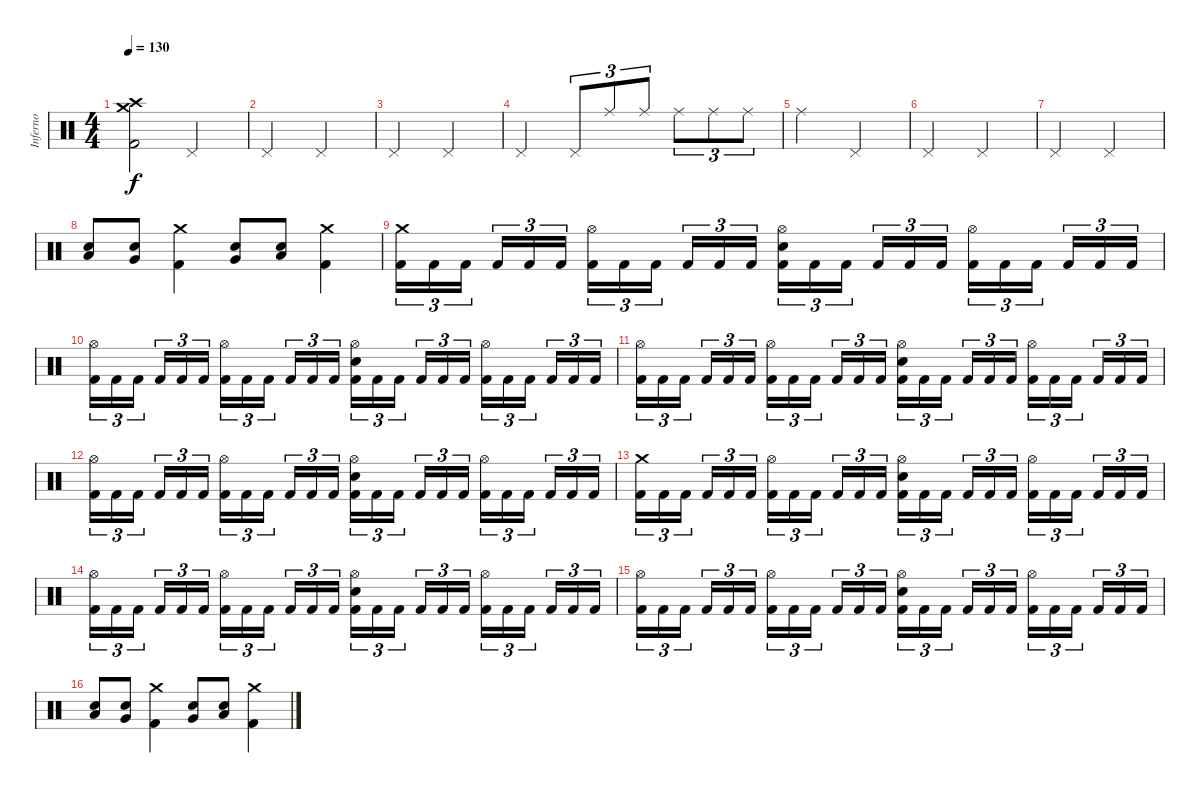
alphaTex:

\track ("Inferno" "Inferno") {instrument percussion}
\staff {score}
\articulation defaults
\ts (4 4)
\tempo 130
\clef neutral
\ks c
("Crash high (hit)" "Crash medium (hit)" "Kick (hit) 2").2{dy f} "Pedal Hi-Hat (hit)".2 |
"Pedal Hi-Hat (hit)".2 "Pedal Hi-Hat (hit)".2 |
"Pedal Hi-Hat (hit)".2 "Pedal Hi-Hat (hit)".2 |
"Pedal Hi-Hat (hit)".2 "Pedal Hi-Hat (hit)".8{tu (3 2)} "Ride (middle)".8{tu (3 2)} "Ride (middle)".8{tu (3 2)} "Ride (middle)".8{tu (3 2)} "Ride (middle)".8{tu (3 2)} "Ride (middle)".8{tu (3 2)} |
"Ride (middle)".2 "Pedal Hi-Hat (hit)".2 |
"Pedal Hi-Hat (hit)".2 "Pedal Hi-Hat (hit)".2 |
"Pedal Hi-Hat (hit)".2 "Pedal Hi-Hat (hit)".2 |
("Low Tom (hit)" "Snare (hit) 2").8 ("Very Low Tom (hit)" "Snare (hit) 2").8 ("Crash medium (hit)" "Kick (hit) 2").4 ("Very Low Tom (hit)" "Snare (hit) 2").8 ("Low Floor Tom (hit)" "Snare (hit) 2").8 ("Crash medium (hit)" "Kick (hit) 2").4 |
("Crash medium (hit)" "Kick (hit) 2").16{tu (3 2)} "Kick (hit) 2".16{tu (3 2)} "Kick (hit) 2".16{tu (3 2) beam splitsecondary} "Kick (hit) 2".16{tu (3 2)} "Kick (hit) 2".16{tu (3 2)} "Kick (hit) 2".16{tu (3 2)} ("Hi-Hat (open)" "Kick (hit) 2").16{tu (3 2)} "Kick (hit) 2".16{tu (3 2)} "Kick (hit) 2".16{tu (3 2) beam splitsecondary} "Kick (hit) 2".16{tu (3 2)} "Kick (hit) 2".16{tu (3 2)} "Kick (hit) 2".16{tu (3 2)} ("Hi-Hat (open)" "Snare (hit) 2" "Kick (hit) 2").16{tu (3 2)} "Kick (hit) 2".16{tu (3 2)} "Kick (hit) 2".16{tu (3 2) beam splitsecondary} "Kick (hit) 2".16{tu (3 2)} "Kick (hit) 2".16{tu (3 2)} "Kick (hit) 2".16{tu (3 2)} ("Hi-Hat (open)" "Kick (hit) 2").16{tu (3 2)} "Kick (hit) 2".16{tu (3 2)} "Kick (hit) 2".16{tu (3 2) beam splitsecondary} "Kick (hit) 2".16{tu (3 2)} "Kick (hit) 2".16{tu (3 2)} "Kick (hit) 2".16{tu (3 2)} |
("Hi-Hat (open)" "Kick (hit) 2").16{tu (3 2)} "Kick (hit) 2".16{tu (3 2)} "Kick (hit) 2".16{tu (3 2) beam splitsecondary} "Kick (hit) 2".16{tu (3 2)} "Kick (hit) 2".16{tu (3 2)} "Kick (hit) 2".16{tu (3 2)} ("Hi-Hat (open)" "Kick (hit) 2").16{tu (3 2)} "Kick (hit) 2".16{tu (3 2)} "Kick (hit) 2".16{tu (3 2) beam splitsecondary} "Kick (hit) 2".16{tu (3 2)} "Kick (hit) 2".16{tu (3 2)} "Kick (hit) 2".16{tu (3 2)} ("Hi-Hat (open)" "Snare (hit) 2" "Kick (hit) 2").16{tu (3 2)} "Kick (hit) 2".16{tu (3 2)} "Kick (hit) 2".16{tu (3 2) beam splitsecondary} "Kick (hit) 2".16{tu (3 2)} "Kick (hit) 2".16{tu (3 2)} "Kick (hit) 2".16{tu (3 2)} ("Hi-Hat (open)" "Kick (hit) 2").16{tu (3 2)} "Kick (hit) 2".16{tu (3 2)} "Kick (hit) 2".16{tu (3 2) beam splitsecondary} "Kick (hit) 2".16{tu (3 2)} "Kick (hit) 2".16{tu (3 2)} "Kick (hit) 2".16{tu (3 2)} |
("Hi-Hat (open)" "Kick (hit) 2").16{tu (3 2)} "Kick (hit) 2".16{tu (3 2)} "Kick (hit) 2".16{tu (3 2) beam splitsecondary} "Kick (hit) 2".16{tu (3 2)} "Kick (hit) 2".16{tu (3 2)} "Kick (hit) 2".16{tu (3 2)} ("Hi-Hat (open)" "Kick (hit) 2").16{tu (3 2)} "Kick (hit) 2".16{tu (3 2)} "Kick (hit) 2".16{tu (3 2) beam splitsecondary} "Kick (hit) 2".16{tu (3 2)} "Kick (hit) 2".16{tu (3 2)} "Kick (hit) 2".16{tu (3 2)} ("Hi-Hat (open)" "Snare (hit) 2" "Kick (hit) 2").16{tu (3 2)} "Kick (hit) 2".16{tu (3 2)} "Kick (hit) 2".16{tu (3 2) beam splitsecondary} "Kick (hit) 2".16{tu (3 2)} "Kick (hit) 2".16{tu (3 2)} "Kick (hit) 2".16{tu (3 2)} ("Hi-Hat (open)" "Kick (hit) 2").16{tu (3 2)} "Kick (hit) 2".16{tu (3 2)} "Kick (hit) 2".16{tu (3 2) beam splitsecondary} "Kick (hit) 2".16{tu (3 2)} "Kick (hit) 2".16{tu (3 2)} "Kick (hit) 2".16{tu (3 2)} |
("Hi-Hat (open)" "Kick (hit) 2").16{tu (3 2)} "Kick (hit) 2".16{tu (3 2)} "Kick (hit) 2".16{tu (3 2) beam splitsecondary} "Kick (hit) 2".16{tu (3 2)} "Kick (hit) 2".16{tu (3 2)} "Kick (hit) 2".16{tu (3 2)} ("Hi-Hat (open)" "Kick (hit) 2").16{tu (3 2)} "Kick (hit) 2".16{tu (3 2)} "Kick (hit) 2".16{tu (3 2) beam splitsecondary} "Kick (hit) 2".16{tu (3 2)} "Kick (hit) 2".16{tu (3 2)} "Kick (hit) 2".16{tu (3 2)} ("Hi-Hat (open)" "Snare (hit) 2" "Kick (hit) 2").16{tu (3 2)} "Kick (hit) 2".16{tu (3 2)} "Kick (hit) 2".16{tu (3 2) beam splitsecondary} "Kick (hit) 2".16{tu (3 2)} "Kick (hit) 2".16{tu (3 2)} "Kick (hit) 2".16{tu (3 2)} ("Hi-Hat (open)" "Kick (hit) 2").16{tu (3 2)} "Kick (hit) 2".16{tu (3 2)} "Kick (hit) 2".16{tu (3 2) beam splitsecondary} "Kick (hit) 2".16{tu (3 2)} "Kick (hit) 2".16{tu (3 2)} "Kick (hit) 2".16{tu (3 2)} |
("Crash medium (hit)" "Kick (hit) 2").16{tu (3 2)} "Kick (hit) 2".16{tu (3 2)} "Kick (hit) 2".16{tu (3 2) beam splitsecondary} "Kick (hit) 2".16{tu (3 2)} "Kick (hit) 2".16{tu (3 2)} "Kick (hit) 2".16{tu (3 2)} ("Hi-Hat (open)" "Kick (hit) 2").16{tu (3 2)} "Kick (hit) 2".16{tu (3 2)} "Kick (hit) 2".16{tu (3 2) beam splitsecondary} "Kick (hit) 2".16{tu (3 2)} "Kick (hit) 2".16{tu (3 2)} "Kick (hit) 2".16{tu (3 2)} ("Hi-Hat (open)" "Snare (hit) 2" "Kick (hit) 2").16{tu (3 2)} "Kick (hit) 2".16{tu (3 2)} "Kick (hit) 2".16{tu (3 2) beam splitsecondary} "Kick (hit) 2".16{tu (3 2)} "Kick (hit) 2".16{tu (3 2)} "Kick (hit) 2".16{tu (3 2)} ("Hi-Hat (open)" "Kick (hit) 2").16{tu (3 2)} "Kick (hit) 2".16{tu (3 2)} "Kick (hit) 2".16{tu (3 2) beam splitsecondary} "Kick (hit) 2".16{tu (3 2)} "Kick (hit) 2".16{tu (3 2)} "Kick (hit) 2".16{tu (3 2)} |
("Hi-Hat (open)" "Kick (hit) 2").16{tu (3 2)} "Kick (hit) 2".16{tu (3 2)} "Kick (hit) 2".16{tu (3 2) beam splitsecondary} "Kick (hit) 2".16{tu (3 2)} "Kick (hit) 2".16{tu (3 2)} "Kick (hit) 2".16{tu (3 2)} ("Hi-Hat (open)" "Kick (hit) 2").16{tu (3 2)} "Kick (hit) 2".16{tu (3 2)} "Kick (hit) 2".16{tu (3 2) beam splitsecondary} "Kick (hit) 2".16{tu (3 2)} "Kick (hit) 2".16{tu (3 2)} "Kick (hit) 2".16{tu (3 2)} ("Hi-Hat (open)" "Snare (hit) 2" "Kick (hit) 2").16{tu (3 2)} "Kick (hit) 2".16{tu (3 2)} "Kick (hit) 2".16{tu (3 2) beam splitsecondary} "Kick (hit) 2".16{tu (3 2)} "Kick (hit) 2".16{tu (3 2)} "Kick (hit) 2".16{tu (3 2)} ("Hi-Hat (open)" "Kick (hit) 2").16{tu (3 2)} "Kick (hit) 2".16{tu (3 2)} "Kick (hit) 2".16{tu (3 2) beam splitsecondary} "Kick (hit) 2".16{tu (3 2)} "Kick (hit) 2".16{tu (3 2)} "Kick (hit) 2".16{tu (3 2)} |
("Hi-Hat (open)" "Kick (hit) 2").16{tu (3 2)} "Kick (hit) 2".16{tu (3 2)} "Kick (hit) 2".16{tu (3 2) beam splitsecondary} "Kick (hit) 2".16{tu (3 2)} "Kick (hit) 2".16{tu (3 2)} "Kick (hit) 2".16{tu (3 2)} ("Hi-Hat (open)" "Kick (hit) 2").16{tu (3 2)} "Kick (hit) 2".16{tu (3 2)} "Kick (hit) 2".16{tu (3 2) beam splitsecondary} "Kick (hit) 2".16{tu (3 2)} "Kick (hit) 2".16{tu (3 2)} "Kick (hit) 2".16{tu (3 2)} ("Hi-Hat (open)" "Snare (hit) 2" "Kick (hit) 2").16{tu (3 2)} "Kick (hit) 2".16{tu (3 2)} "Kick (hit) 2".16{tu (3 2) beam splitsecondary} "Kick (hit) 2".16{tu (3 2)} "Kick (hit) 2".16{tu (3 2)} "Kick (hit) 2".16{tu (3 2)} ("Hi-Hat (open)" "Kick (hit) 2").16{tu (3 2)} "Kick (hit) 2".16{tu (3 2)} "Kick (hit) 2".16{tu (3 2) beam splitsecondary} "Kick (hit) 2".16{tu (3 2)} "Kick (hit) 2".16{tu (3 2)} "Kick (hit) 2".16{tu (3 2)} |
("Low Tom (hit)" "Snare (hit) 2").8 ("Very Low Tom (hit)" "Snare (hit) 2").8 ("Crash medium (hit)" "Kick (hit) 2").4 ("Very Low Tom (hit)" "Snare (hit) 2").8 ("Low Floor Tom (hit)" "Snare (hit) 2").8 ("Crash medium (hit)" "Kick (hit) 2").4
